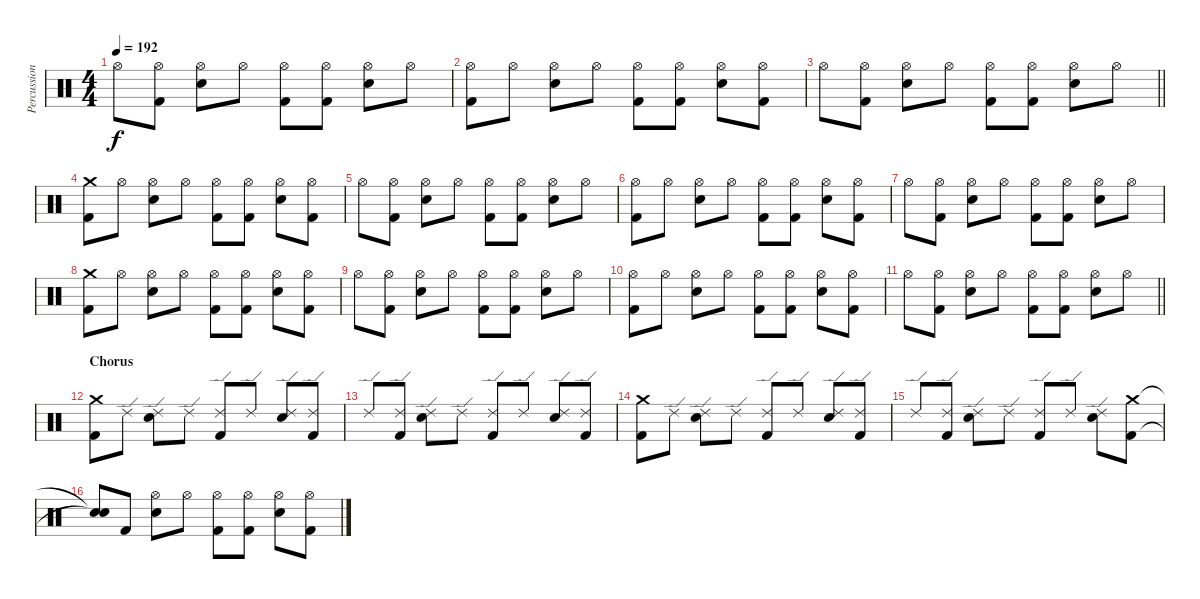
\track ("Percussion" "Percussion") {instrument percussion}
\staff {score}
\articulation defaults
\ts (4 4)
\tempo 192
\clef neutral
\ks c "Hi-Hat (open)".8{dy f}
("Hi-Hat (open)" "Kick (hit) 2").8 ("Hi-Hat (open)" "Electric Snare (hit)").8 "Hi-Hat (open)".8 ("Hi-Hat (open)" "Kick (hit) 2").8 ("Hi-Hat (open)" "Kick (hit) 2").8 ("Hi-Hat (open)" "Electric Snare (hit)").8 "Hi-Hat (open)".8 |
("Hi-Hat (open)" "Kick (hit) 2").8 "Hi-Hat (open)".8 ("Hi-Hat (open)" "Electric Snare (hit)").8 "Hi-Hat (open)".8 ("Hi-Hat (open)" "Kick (hit) 2").8 ("Hi-Hat (open)" "Kick (hit) 2").8 ("Hi-Hat (open)" "Electric Snare (hit)").8 ("Hi-Hat (open)" "Kick (hit) 2").8 |
\barLineRight lightlight "Hi-Hat (open)".8
("Hi-Hat (open)" "Kick (hit) 2").8 ("Hi-Hat (open)" "Electric Snare (hit)").8 "Hi-Hat (open)".8 ("Hi-Hat (open)" "Kick (hit) 2").8 ("Hi-Hat (open)" "Kick (hit) 2").8 ("Hi-Hat (open)" "Electric Snare (hit)").8 "Hi-Hat (open)".8 |
("Crash medium (hit)" "Kick (hit) 2").8 "Hi-Hat (open)".8 ("Hi-Hat (open)" "Electric Snare (hit)").8 "Hi-Hat (open)".8 ("Hi-Hat (open)" "Kick (hit) 2").8 ("Hi-Hat (open)" "Kick (hit) 2").8 ("Hi-Hat (open)" "Electric Snare (hit)").8 ("Hi-Hat (open)" "Kick (hit) 2").8 |
"Hi-Hat (open)".8 ("Hi-Hat (open)" "Kick (hit) 2").8 ("Hi-Hat (open)" "Electric Snare (hit)").8 "Hi-Hat (open)".8 ("Hi-Hat (open)" "Kick (hit) 2").8 ("Hi-Hat (open)" "Kick (hit) 2").8 ("Hi-Hat (open)" "Electric Snare (hit)").8 "Hi-Hat (open)".8 |
("Hi-Hat (open)" "Kick (hit) 2").8 "Hi-Hat (open)".8 ("Hi-Hat (open)" "Electric Snare (hit)").8 "Hi-Hat (open)".8 ("Hi-Hat (open)" "Kick (hit) 2").8 ("Hi-Hat (open)" "Kick (hit) 2").8 ("Hi-Hat (open)" "Electric Snare (hit)").8 ("Hi-Hat (open)" "Kick (hit) 2").8 |
"Hi-Hat (open)".8 ("Hi-Hat (open)" "Kick (hit) 2").8 ("Hi-Hat (open)" "Electric Snare (hit)").8 "Hi-Hat (open)".8 ("Hi-Hat (open)" "Kick (hit) 2").8 ("Hi-Hat (open)" "Kick (hit) 2").8 ("Hi-Hat (open)" "Electric Snare (hit)").8 "Hi-Hat (open)".8 |
("Crash medium (hit)" "Kick (hit) 2").8 "Hi-Hat (open)".8 ("Hi-Hat (open)" "Electric Snare (hit)").8 "Hi-Hat (open)".8 ("Hi-Hat (open)" "Kick (hit) 2").8 ("Hi-Hat (open)" "Kick (hit) 2").8 ("Hi-Hat (open)" "Electric Snare (hit)").8 ("Hi-Hat (open)" "Kick (hit) 2").8 |
"Hi-Hat (open)".8 ("Hi-Hat (open)" "Kick (hit) 2").8 ("Hi-Hat (open)" "Electric Snare (hit)").8 "Hi-Hat (open)".8 ("Hi-Hat (open)" "Kick (hit) 2").8 ("Hi-Hat (open)" "Kick (hit) 2").8 ("Hi-Hat (open)" "Electric Snare (hit)").8 "Hi-Hat (open)".8 |
("Hi-Hat (open)" "Kick (hit) 2").8 "Hi-Hat (open)".8 ("Hi-Hat (open)" "Electric Snare (hit)").8 "Hi-Hat (open)".8 ("Hi-Hat (open)" "Kick (hit) 2").8 ("Hi-Hat (open)" "Kick (hit) 2").8 ("Hi-Hat (open)" "Electric Snare (hit)").8 ("Hi-Hat (open)" "Kick (hit) 2").8 |
\barLineRight lightlight "Hi-Hat (open)".8
("Hi-Hat (open)" "Kick (hit) 2").8 ("Hi-Hat (open)" "Electric Snare (hit)").8 "Hi-Hat (open)".8 ("Hi-Hat (open)" "Kick (hit) 2").8 ("Hi-Hat (open)" "Kick (hit) 2").8 ("Hi-Hat (open)" "Electric Snare (hit)").8 "Hi-Hat (open)".8 |
\section ("" "Chorus")
("Crash medium (hit)" "Kick (hit) 2").8 "Ride (edge) 2".8 ("Ride (edge) 2" "Electric Snare (hit)").8 "Ride (edge) 2".8 ("Ride (edge) 2" "Kick (hit) 2").8 "Ride (edge) 2".8 ("Ride (edge) 2" "Electric Snare (hit)").8 ("Ride (edge) 2" "Kick (hit) 2").8 |
"Ride (edge) 2".8 ("Ride (edge) 2" "Kick (hit) 2").8 ("Ride (edge) 2" "Electric Snare (hit)").8 "Ride (edge) 2".8 ("Ride (edge) 2" "Kick (hit) 2").8 "Ride (edge) 2".8 ("Ride (edge) 2" "Electric Snare (hit)").8 ("Ride (edge) 2" "Kick (hit) 2").8 |
("Crash medium (hit)" "Kick (hit) 2").8 "Ride (edge) 2".8 ("Ride (edge) 2" "Electric Snare (hit)").8 "Ride (edge) 2".8 ("Ride (edge) 2" "Kick (hit) 2").8 "Ride (edge) 2".8 ("Ride (edge) 2" "Electric Snare (hit)").8 ("Ride (edge) 2" "Kick (hit) 2").8 |
"Ride (edge) 2".8 ("Ride (edge) 2" "Kick (hit) 2").8 ("Ride (edge) 2" "Electric Snare (hit)").8 "Ride (edge) 2".8 ("Ride (edge) 2" "Kick (hit) 2").8 "Ride (edge) 2".8 ("Ride (edge) 2" "Electric Snare (hit)").8 ("Crash medium (hit)" "Kick (hit) 2").8 |
("Snare (hit)"{t} "Snare (hit)"{t}).8 "Kick (hit) 2".8 ("Hi-Hat (open)" "Electric Snare (hit)").8 "Hi-Hat (open)".8 ("Hi-Hat (open)" "Kick (hit) 2").8 ("Hi-Hat (open)" "Kick (hit) 2").8 ("Hi-Hat (open)" "Electric Snare (hit)").8 ("Hi-Hat (open)" "Kick (hit) 2").8
